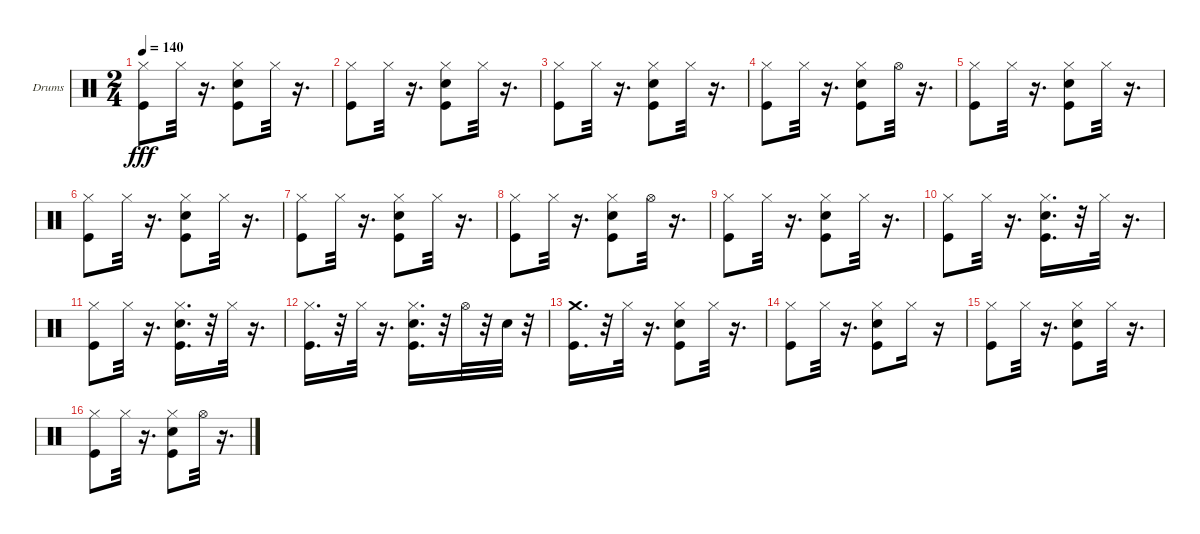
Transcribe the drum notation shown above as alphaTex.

\bracketExtendMode groupsimilarinstruments
\firstSystemTrackNameOrientation horizontal
\otherSystemsTrackNameOrientation horizontal
\track ("Ударные" "Drums") {instrument percussion}
\staff {score}
\articulation defaults
\ts (2 4)
\tempo 140
\clef neutral
\ks c
("Kick (hit)" "Hi-Hat (closed)").8{dy fff} "Hi-Hat (closed)".32 r.16{d} ("Snare (hit) 2" "Kick (hit)" "Hi-Hat (closed)").8 "Hi-Hat (closed)".32 r.16{d} |
("Kick (hit)" "Hi-Hat (closed)").8 "Hi-Hat (closed)".32 r.16{d} ("Snare (hit) 2" "Kick (hit)" "Hi-Hat (closed)").8 "Hi-Hat (closed)".32 r.16{d} |
("Kick (hit)" "Hi-Hat (closed)").8 "Hi-Hat (closed)".32 r.16{d} ("Hi-Hat (closed)" "Snare (hit) 2" "Kick (hit)").8 "Hi-Hat (closed)".32 r.16{d} |
("Kick (hit)" "Hi-Hat (closed)").8 "Hi-Hat (closed)".32 r.16{d} ("Hi-Hat (closed)" "Snare (hit) 2" "Kick (hit)").8 "Hi-Hat (open)".32 r.16{d} |
("Kick (hit)" "Hi-Hat (closed)").8 "Hi-Hat (closed)".32 r.16{d} ("Snare (hit) 2" "Kick (hit)" "Hi-Hat (closed)").8 "Hi-Hat (closed)".32 r.16{d} |
("Kick (hit)" "Hi-Hat (closed)").8 "Hi-Hat (closed)".32 r.16{d} ("Snare (hit) 2" "Kick (hit)" "Hi-Hat (closed)").8 "Hi-Hat (closed)".32 r.16{d} |
("Kick (hit)" "Hi-Hat (closed)").8 "Hi-Hat (closed)".32 r.16{d} ("Kick (hit)" "Hi-Hat (closed)" "Snare (hit) 2").8 "Hi-Hat (closed)".32 r.16{d} |
("Kick (hit)" "Hi-Hat (closed)").8 "Hi-Hat (closed)".32 r.16{d} ("Kick (hit)" "Hi-Hat (closed)" "Snare (hit) 2").8 "Hi-Hat (open)".32 r.16{d} |
("Kick (hit)" "Hi-Hat (closed)").8 "Hi-Hat (closed)".32 r.16{d} ("Snare (hit) 2" "Kick (hit)" "Hi-Hat (closed)").8 "Hi-Hat (closed)".32 r.16{d} |
("Kick (hit)" "Hi-Hat (closed)").8 "Hi-Hat (closed)".32 r.16{d} ("Hi-Hat (closed)" "Snare (hit) 2" "Kick (hit)").16{d} r.32 "Hi-Hat (closed)".32 r.16{d} |
("Kick (hit)" "Hi-Hat (closed)").8 "Hi-Hat (closed)".32 r.16{d} ("Snare (hit) 2" "Kick (hit)" "Hi-Hat (closed)").16{d} r.32 "Hi-Hat (closed)".32 r.16{d} |
("Kick (hit)" "Hi-Hat (closed)").16{d} r.32 "Hi-Hat (closed)".32 r.16{d} ("Snare (hit) 2" "Kick (hit)" "Hi-Hat (closed)").16{d} r.32 "Hi-Hat (open)".32 r.32 "Snare (hit) 2".32 r.32 |
("Kick (hit)" "Crash medium (hit)").16{d} r.32 "Hi-Hat (closed)".32 r.16{d} ("Kick (hit)" "Snare (hit) 2" "Hi-Hat (closed)").8 "Hi-Hat (closed)".32 r.16{d} |
("Kick (hit)" "Hi-Hat (closed)").8 "Hi-Hat (closed)".32 r.16{d} ("Snare (hit) 2" "Kick (hit)" "Hi-Hat (closed)").8 "Hi-Hat (closed)".16 r.16 |
("Kick (hit)" "Hi-Hat (closed)").8 "Hi-Hat (closed)".32 r.16{d} ("Snare (hit) 2" "Kick (hit)" "Hi-Hat (closed)").8 "Hi-Hat (closed)".32 r.16{d} |
("Kick (hit)" "Hi-Hat (closed)").8 "Hi-Hat (closed)".32 r.16{d} ("Kick (hit)" "Snare (hit) 2" "Hi-Hat (closed)").8 "Hi-Hat (open)".32 r.16{d}
